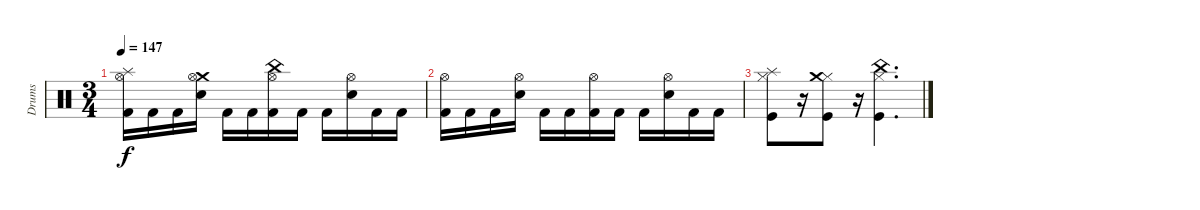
\track ("Drums" "Drums") {instrument percussion}
\staff {score}
\articulation defaults
\ts (3 4)
\tempo 147
\clef neutral
\ks c
("Kick (hit) 2" "Splash (hit)" "Hi-Hat (open)").16{dy f} "Kick (hit) 2".16 "Kick (hit) 2".16 ("Snare (hit) 2" "Crash medium (hit)" "Hi-Hat (open)").16 "Kick (hit) 2".16 "Kick (hit) 2".16 ("Kick (hit) 2" "China (hit)" "Hi-Hat (open)").16 "Kick (hit) 2".16 "Kick (hit) 2".16 ("Snare (hit) 2" "Hi-Hat (open)").16 "Kick (hit) 2".16 "Kick (hit) 2".16 |
("Kick (hit) 2" "Hi-Hat (open)").16 "Kick (hit) 2".16 "Kick (hit) 2".16 ("Snare (hit) 2" "Hi-Hat (open)").16 "Kick (hit) 2".16 "Kick (hit) 2".16 ("Kick (hit) 2" "Hi-Hat (open)").16 "Kick (hit) 2".16 "Kick (hit) 2".16 ("Snare (hit) 2" "Hi-Hat (open)").16 "Kick (hit) 2".16 "Kick (hit) 2".16 |
("Hi-Hat (closed)" "Splash (hit)" "Kick (hit)").8 r.16 ("Hi-Hat (closed)" "Crash medium (hit)" "Kick (hit)").8 r.16 ("Hi-Hat (closed)" "China (hit)" "Kick (hit)").4{d}
